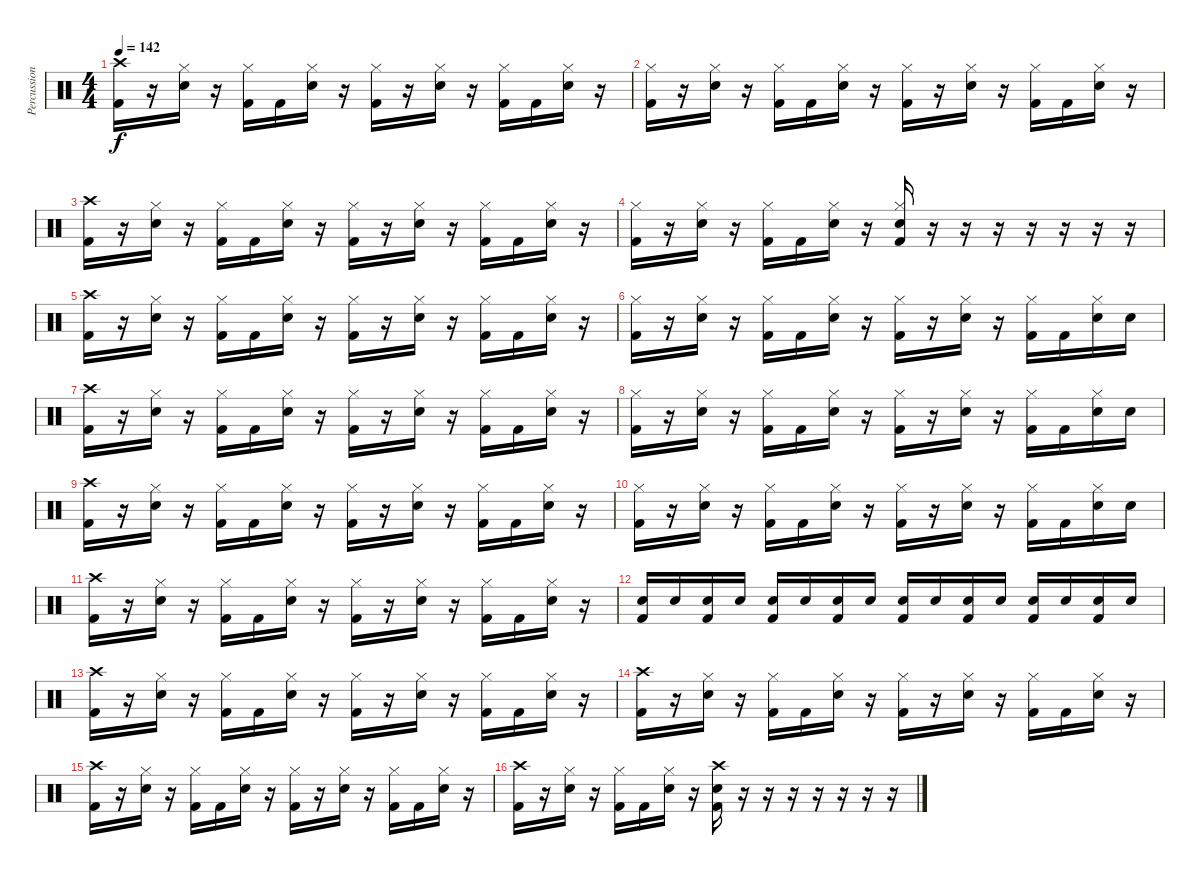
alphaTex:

\track ("Percussion" "Percussion") {instrument percussion}
\staff {score}
\articulation defaults
\ts (4 4)
\tempo 142
\clef neutral
\ks c
("Crash high (hit)" "Kick (hit) 2").16{dy f} r.16 ("Hi-Hat (closed)" "Snare (hit) 2").16 r.16 ("Hi-Hat (closed)" "Kick (hit) 2").16 "Kick (hit) 2".16 ("Hi-Hat (closed)" "Snare (hit) 2").16 r.16 ("Hi-Hat (closed)" "Kick (hit) 2").16 r.16 ("Hi-Hat (closed)" "Snare (hit) 2").16 r.16 ("Hi-Hat (closed)" "Kick (hit) 2").16 "Kick (hit) 2".16 ("Hi-Hat (closed)" "Snare (hit) 2").16 r.16 |
("Hi-Hat (closed)" "Kick (hit) 2").16 r.16 ("Hi-Hat (closed)" "Snare (hit) 2").16 r.16 ("Hi-Hat (closed)" "Kick (hit) 2").16 "Kick (hit) 2".16 ("Hi-Hat (closed)" "Snare (hit) 2").16 r.16 ("Hi-Hat (closed)" "Kick (hit) 2").16 r.16 ("Hi-Hat (closed)" "Snare (hit) 2").16 r.16 ("Hi-Hat (closed)" "Kick (hit) 2").16 "Kick (hit) 2".16 ("Hi-Hat (closed)" "Snare (hit) 2").16 r.16 |
("Crash high (hit)" "Kick (hit) 2").16 r.16 ("Hi-Hat (closed)" "Snare (hit) 2").16 r.16 ("Hi-Hat (closed)" "Kick (hit) 2").16 "Kick (hit) 2".16 ("Hi-Hat (closed)" "Snare (hit) 2").16 r.16 ("Hi-Hat (closed)" "Kick (hit) 2").16 r.16 ("Hi-Hat (closed)" "Snare (hit) 2").16 r.16 ("Hi-Hat (closed)" "Kick (hit) 2").16 "Kick (hit) 2".16 ("Hi-Hat (closed)" "Snare (hit) 2").16 r.16 |
("Hi-Hat (closed)" "Kick (hit) 2").16 r.16 ("Hi-Hat (closed)" "Snare (hit) 2").16 r.16 ("Hi-Hat (closed)" "Kick (hit) 2").16 "Kick (hit) 2".16 ("Hi-Hat (closed)" "Snare (hit) 2").16 r.16 ("Hi-Hat (closed)" "Snare (hit) 2" "Kick (hit) 2").16 r.16 r.16 r.16 r.16 r.16 r.16 r.16 |
("Crash high (hit)" "Kick (hit) 2").16 r.16 ("Hi-Hat (closed)" "Snare (hit) 2").16 r.16 ("Hi-Hat (closed)" "Kick (hit) 2").16 "Kick (hit) 2".16 ("Hi-Hat (closed)" "Snare (hit) 2").16 r.16 ("Hi-Hat (closed)" "Kick (hit) 2").16 r.16 ("Hi-Hat (closed)" "Snare (hit) 2").16 r.16 ("Hi-Hat (closed)" "Kick (hit) 2").16 "Kick (hit) 2".16 ("Hi-Hat (closed)" "Snare (hit) 2").16 r.16 |
("Hi-Hat (closed)" "Kick (hit) 2").16 r.16 ("Hi-Hat (closed)" "Snare (hit) 2").16 r.16 ("Hi-Hat (closed)" "Kick (hit) 2").16 "Kick (hit) 2".16 ("Hi-Hat (closed)" "Snare (hit) 2").16 r.16 ("Hi-Hat (closed)" "Kick (hit) 2").16 r.16 ("Hi-Hat (closed)" "Snare (hit) 2").16 r.16 ("Hi-Hat (closed)" "Kick (hit) 2").16 "Kick (hit) 2".16 ("Hi-Hat (closed)" "Snare (hit) 2").16 "Snare (hit) 2".16 |
("Crash high (hit)" "Kick (hit) 2").16 r.16 ("Hi-Hat (closed)" "Snare (hit) 2").16 r.16 ("Hi-Hat (closed)" "Kick (hit) 2").16 "Kick (hit) 2".16 ("Hi-Hat (closed)" "Snare (hit) 2").16 r.16 ("Hi-Hat (closed)" "Kick (hit) 2").16 r.16 ("Hi-Hat (closed)" "Snare (hit) 2").16 r.16 ("Hi-Hat (closed)" "Kick (hit) 2").16 "Kick (hit) 2".16 ("Hi-Hat (closed)" "Snare (hit) 2").16 r.16 |
("Hi-Hat (closed)" "Kick (hit) 2").16 r.16 ("Hi-Hat (closed)" "Snare (hit) 2").16 r.16 ("Hi-Hat (closed)" "Kick (hit) 2").16 "Kick (hit) 2".16 ("Hi-Hat (closed)" "Snare (hit) 2").16 r.16 ("Hi-Hat (closed)" "Kick (hit) 2").16 r.16 ("Hi-Hat (closed)" "Snare (hit) 2").16 r.16 ("Hi-Hat (closed)" "Kick (hit) 2").16 "Kick (hit) 2".16 ("Hi-Hat (closed)" "Snare (hit) 2").16 "Snare (hit) 2".16 |
("Crash high (hit)" "Kick (hit) 2").16 r.16 ("Hi-Hat (closed)" "Snare (hit) 2").16 r.16 ("Hi-Hat (closed)" "Kick (hit) 2").16 "Kick (hit) 2".16 ("Hi-Hat (closed)" "Snare (hit) 2").16 r.16 ("Hi-Hat (closed)" "Kick (hit) 2").16 r.16 ("Hi-Hat (closed)" "Snare (hit) 2").16 r.16 ("Hi-Hat (closed)" "Kick (hit) 2").16 "Kick (hit) 2".16 ("Hi-Hat (closed)" "Snare (hit) 2").16 r.16 |
("Hi-Hat (closed)" "Kick (hit) 2").16 r.16 ("Hi-Hat (closed)" "Snare (hit) 2").16 r.16 ("Hi-Hat (closed)" "Kick (hit) 2").16 "Kick (hit) 2".16 ("Hi-Hat (closed)" "Snare (hit) 2").16 r.16 ("Hi-Hat (closed)" "Kick (hit) 2").16 r.16 ("Hi-Hat (closed)" "Snare (hit) 2").16 r.16 ("Hi-Hat (closed)" "Kick (hit) 2").16 "Kick (hit) 2".16 ("Hi-Hat (closed)" "Snare (hit) 2").16 "Snare (hit) 2".16 |
("Crash high (hit)" "Kick (hit) 2").16 r.16 ("Hi-Hat (closed)" "Snare (hit) 2").16 r.16 ("Hi-Hat (closed)" "Kick (hit) 2").16 "Kick (hit) 2".16 ("Hi-Hat (closed)" "Snare (hit) 2").16 r.16 ("Hi-Hat (closed)" "Kick (hit) 2").16 r.16 ("Hi-Hat (closed)" "Snare (hit) 2").16 r.16 ("Hi-Hat (closed)" "Kick (hit) 2").16 "Kick (hit) 2".16 ("Hi-Hat (closed)" "Snare (hit) 2").16 r.16 |
("Snare (hit) 2" "Kick (hit) 2").16 "Snare (hit) 2".16 ("Snare (hit) 2" "Kick (hit) 2").16 "Snare (hit) 2".16 ("Snare (hit) 2" "Kick (hit) 2").16 "Snare (hit) 2".16 ("Snare (hit) 2" "Kick (hit) 2").16 "Snare (hit) 2".16 ("Snare (hit) 2" "Kick (hit) 2").16 "Snare (hit) 2".16 ("Snare (hit) 2" "Kick (hit) 2").16 "Snare (hit) 2".16 ("Snare (hit) 2" "Kick (hit) 2").16 "Snare (hit) 2".16 ("Snare (hit) 2" "Kick (hit) 2").16 "Snare (hit) 2".16 |
("Crash high (hit)" "Kick (hit) 2").16 r.16 ("Hi-Hat (closed)" "Snare (hit) 2").16 r.16 ("Hi-Hat (closed)" "Kick (hit) 2").16 "Kick (hit) 2".16 ("Hi-Hat (closed)" "Snare (hit) 2").16 r.16 ("Hi-Hat (closed)" "Kick (hit) 2").16 r.16 ("Hi-Hat (closed)" "Snare (hit) 2").16 r.16 ("Hi-Hat (closed)" "Kick (hit) 2").16 "Kick (hit) 2".16 ("Hi-Hat (closed)" "Snare (hit) 2").16 r.16 |
("Crash high (hit)" "Kick (hit) 2").16 r.16 ("Hi-Hat (closed)" "Snare (hit) 2").16 r.16 ("Hi-Hat (closed)" "Kick (hit) 2").16 "Kick (hit) 2".16 ("Hi-Hat (closed)" "Snare (hit) 2").16 r.16 ("Hi-Hat (closed)" "Kick (hit) 2").16 r.16 ("Hi-Hat (closed)" "Snare (hit) 2").16 r.16 ("Hi-Hat (closed)" "Kick (hit) 2").16 "Kick (hit) 2".16 ("Hi-Hat (closed)" "Snare (hit) 2").16 r.16 |
("Crash high (hit)" "Kick (hit) 2").16 r.16 ("Hi-Hat (closed)" "Snare (hit) 2").16 r.16 ("Hi-Hat (closed)" "Kick (hit) 2").16 "Kick (hit) 2".16 ("Hi-Hat (closed)" "Snare (hit) 2").16 r.16 ("Hi-Hat (closed)" "Kick (hit) 2").16 r.16 ("Hi-Hat (closed)" "Snare (hit) 2").16 r.16 ("Hi-Hat (closed)" "Kick (hit) 2").16 "Kick (hit) 2".16 ("Hi-Hat (closed)" "Snare (hit) 2").16 r.16 |
("Crash high (hit)" "Kick (hit) 2").16 r.16 ("Hi-Hat (closed)" "Snare (hit) 2").16 r.16 ("Hi-Hat (closed)" "Kick (hit) 2").16 "Kick (hit) 2".16 ("Hi-Hat (closed)" "Snare (hit) 2").16 r.16 ("Crash high (hit)" "Snare (hit) 2" "Kick (hit) 2").16 r.16 r.16 r.16 r.16 r.16 r.16 r.16
